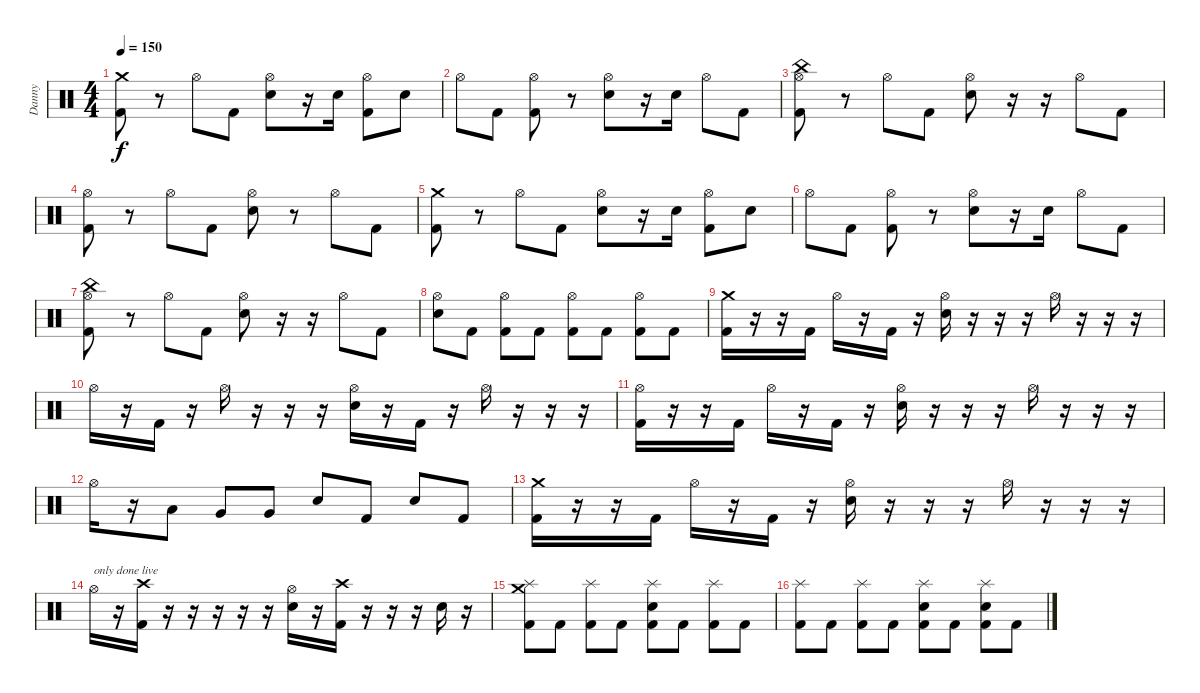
\track ("Danny" "Danny") {instrument percussion}
\staff {score}
\articulation defaults
\ts (4 4)
\tempo 150
\clef neutral
\ks c
("Crash medium (hit)" "Kick (hit) 2").8{dy f} r.8 "Hi-Hat (open)".8 "Kick (hit) 2".8 ("Hi-Hat (open)" "Electric Snare (hit)").8 r.16 "Electric Snare (hit)".16 ("Hi-Hat (open)" "Kick (hit) 2").8 "Electric Snare (hit)".8 |
"Hi-Hat (open)".8 "Kick (hit) 2".8 ("Hi-Hat (open)" "Kick (hit) 2").8 r.8 ("Hi-Hat (open)" "Electric Snare (hit)").8 r.16 "Electric Snare (hit)".16 "Hi-Hat (open)".8 "Kick (hit) 2".8 |
("Hi-Hat (open)" "China (hit)" "Kick (hit) 2").8 r.8 "Hi-Hat (open)".8 "Kick (hit) 2".8 ("Hi-Hat (open)" "Electric Snare (hit)").8 r.16 r.16 "Hi-Hat (open)".8 "Kick (hit) 2".8 |
("Hi-Hat (open)" "Kick (hit) 2").8 r.8 "Hi-Hat (open)".8 "Kick (hit) 2".8 ("Hi-Hat (open)" "Electric Snare (hit)").8 r.8 "Hi-Hat (open)".8 "Kick (hit) 2".8 |
("Crash medium (hit)" "Kick (hit) 2").8 r.8 "Hi-Hat (open)".8 "Kick (hit) 2".8 ("Hi-Hat (open)" "Electric Snare (hit)").8 r.16 "Electric Snare (hit)".16 ("Hi-Hat (open)" "Kick (hit) 2").8 "Electric Snare (hit)".8 |
"Hi-Hat (open)".8 "Kick (hit) 2".8 ("Hi-Hat (open)" "Kick (hit) 2").8 r.8 ("Hi-Hat (open)" "Electric Snare (hit)").8 r.16 "Electric Snare (hit)".16 "Hi-Hat (open)".8 "Kick (hit) 2".8 |
("Hi-Hat (open)" "China (hit)" "Kick (hit) 2").8 r.8 "Hi-Hat (open)".8 "Kick (hit) 2".8 ("Hi-Hat (open)" "Electric Snare (hit)").8 r.16 r.16 "Hi-Hat (open)".8 "Kick (hit) 2".8 |
("Hi-Hat (open)" "Electric Snare (hit)").8 "Kick (hit) 2".8 ("Hi-Hat (open)" "Kick (hit) 2").8 "Kick (hit) 2".8 ("Hi-Hat (open)" "Kick (hit) 2").8 "Kick (hit) 2".8 ("Hi-Hat (open)" "Kick (hit) 2").8 "Kick (hit) 2".8 |
("Crash medium (hit)" "Kick (hit) 2").16 r.16 r.16 "Kick (hit) 2".16 "Hi-Hat (open)".16 r.16 "Kick (hit) 2".16 r.16 ("Hi-Hat (open)" "Electric Snare (hit)").16 r.16 r.16 r.16 "Hi-Hat (open)".16 r.16 r.16 r.16 |
"Hi-Hat (open)".16 r.16 "Kick (hit) 2".16 r.16 "Hi-Hat (open)".16 r.16 r.16 r.16 ("Hi-Hat (open)" "Electric Snare (hit)").16 r.16 "Kick (hit) 2".16 r.16 "Hi-Hat (open)".16 r.16 r.16 r.16 |
("Hi-Hat (open)" "Kick (hit) 2").16 r.16 r.16 "Kick (hit) 2".16 "Hi-Hat (open)".16 r.16 "Kick (hit) 2".16 r.16 ("Hi-Hat (open)" "Electric Snare (hit)").16 r.16 r.16 r.16 "Hi-Hat (open)".16 r.16 r.16 r.16 |
"Hi-Hat (open)".16 r.16 "Low Tom (hit)".8 "Very Low Tom (hit)".8 "Very Low Tom (hit)".8 "Electric Snare (hit)".8 "Kick (hit) 2".8 "Electric Snare (hit)".8 "Kick (hit) 2".8 |
("Crash medium (hit)" "Kick (hit) 2").16 r.16 r.16 "Kick (hit) 2".16 "Hi-Hat (open)".16 r.16 "Kick (hit) 2".16 r.16 ("Hi-Hat (open)" "Electric Snare (hit)").16 r.16 r.16 r.16 "Hi-Hat (open)".16 r.16 r.16 r.16 |
"Hi-Hat (open)".16{txt "only done live"} r.16 ("Crash high (hit)" "Kick (hit) 2").16 r.16 r.16 r.16 r.16 r.16 ("Hi-Hat (open)" "Electric Snare (hit)").16 r.16 ("Crash high (hit)" "Kick (hit) 2").16 r.16 r.16 r.16 "Electric Snare (hit)".16 r.16 |
("Splash (hit)" "Crash medium (hit)" "Kick (hit) 2").8 "Kick (hit) 2".8 ("Splash (hit)" "Kick (hit) 2").8 "Kick (hit) 2".8 ("Splash (hit)" "Electric Snare (hit)" "Kick (hit) 2").8 "Kick (hit) 2".8 ("Splash (hit)" "Kick (hit) 2").8 "Kick (hit) 2".8 |
("Splash (hit)" "Kick (hit) 2").8 "Kick (hit) 2".8 ("Splash (hit)" "Kick (hit) 2").8 "Kick (hit) 2".8 ("Splash (hit)" "Electric Snare (hit)" "Kick (hit) 2").8 "Kick (hit) 2".8 ("Splash (hit)" "Electric Snare (hit)" "Kick (hit) 2").8 "Kick (hit) 2".8
